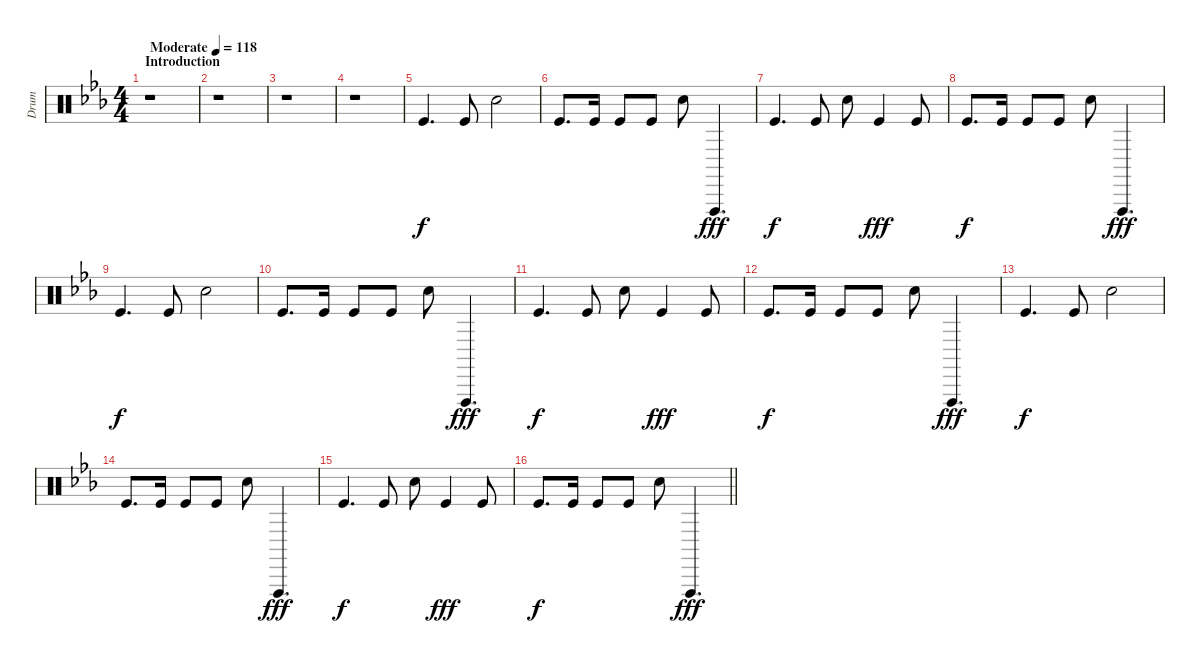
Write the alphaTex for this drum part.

\track ("Drum" "Drum") {instrument percussion}
\staff {score}
\articulation defaults
\ts (4 4)
\section ("" "Introduction")
\tempo (118 "Moderate")
\clef neutral
\ks eb
r.1{dy f} |
r.1 |
r.1 |
r.1 |
"Kick (hit)".4{d} "Kick (hit)".8 "Hand Clap (hit)".2 |
"Kick (hit)".8{d} "Kick (hit)".16 "Kick (hit)".8 "Kick (hit)".8 "Hand Clap (hit)".8 "Vibraslap (hit)".4{d dy fff} |
"Kick (hit)".4{d dy f} "Kick (hit)".8 "Hand Clap (hit)".8 "Kick (hit)".4{dy fff} "Kick (hit)".8 |
"Kick (hit)".8{d dy f} "Kick (hit)".16 "Kick (hit)".8 "Kick (hit)".8 "Hand Clap (hit)".8 "Vibraslap (hit)".4{d dy fff} |
"Kick (hit)".4{d dy f} "Kick (hit)".8 "Hand Clap (hit)".2 |
"Kick (hit)".8{d} "Kick (hit)".16 "Kick (hit)".8 "Kick (hit)".8 "Hand Clap (hit)".8 "Vibraslap (hit)".4{d dy fff} |
"Kick (hit)".4{d dy f} "Kick (hit)".8 "Hand Clap (hit)".8 "Kick (hit)".4{dy fff} "Kick (hit)".8 |
"Kick (hit)".8{d dy f} "Kick (hit)".16 "Kick (hit)".8 "Kick (hit)".8 "Hand Clap (hit)".8 "Vibraslap (hit)".4{d dy fff} |
"Kick (hit)".4{d dy f} "Kick (hit)".8 "Hand Clap (hit)".2 |
"Kick (hit)".8{d} "Kick (hit)".16 "Kick (hit)".8 "Kick (hit)".8 "Hand Clap (hit)".8 "Vibraslap (hit)".4{d dy fff} |
"Kick (hit)".4{d dy f} "Kick (hit)".8 "Hand Clap (hit)".8 "Kick (hit)".4{dy fff} "Kick (hit)".8 |
\barLineRight lightlight "Kick (hit)".8{d dy f} "Kick (hit)".16 "Kick (hit)".8 "Kick (hit)".8 "Hand Clap (hit)".8 "Vibraslap (hit)".4{d dy fff}
